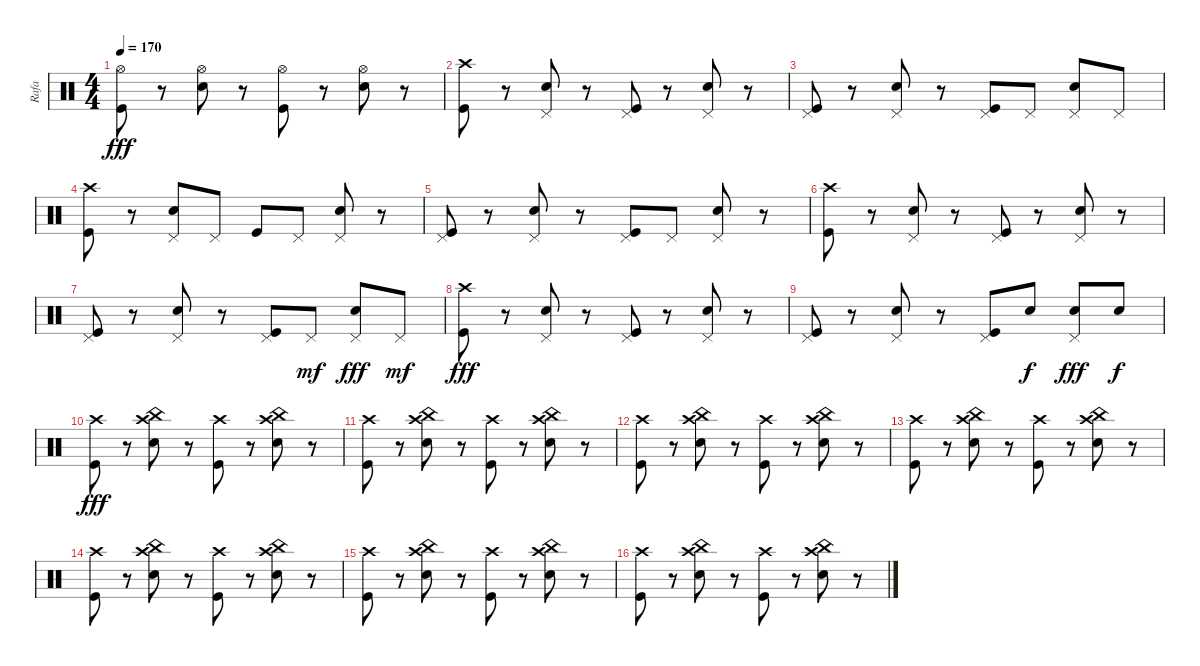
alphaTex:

\track ("Rafa" "Rafa") {instrument percussion}
\staff {score}
\articulation defaults
\ts (4 4)
\tempo 170
\clef neutral
\ks c
("Hi-Hat (open)" "Kick (hit)").8{dy fff} r.8 ("Hi-Hat (open)" "Electric Snare (hit)").8 r.8 ("Hi-Hat (open)" "Kick (hit)").8 r.8 ("Hi-Hat (open)" "Electric Snare (hit)").8 r.8 |
("Crash high (hit)" "Kick (hit)").8 r.8 ("Pedal Hi-Hat (hit)" "Electric Snare (hit)").8 r.8 ("Pedal Hi-Hat (hit)" "Kick (hit)").8 r.8 ("Pedal Hi-Hat (hit)" "Electric Snare (hit)").8 r.8 |
("Pedal Hi-Hat (hit)" "Kick (hit)").8 r.8 ("Pedal Hi-Hat (hit)" "Electric Snare (hit)").8 r.8 ("Pedal Hi-Hat (hit)" "Kick (hit)").8 "Pedal Hi-Hat (hit)".8 ("Pedal Hi-Hat (hit)" "Electric Snare (hit)").8 "Pedal Hi-Hat (hit)".8 |
("Crash high (hit)" "Kick (hit)").8 r.8 ("Pedal Hi-Hat (hit)" "Electric Snare (hit)").8 "Pedal Hi-Hat (hit)".8 "Kick (hit)".8 "Pedal Hi-Hat (hit)".8 ("Pedal Hi-Hat (hit)" "Electric Snare (hit)").8 r.8 |
("Pedal Hi-Hat (hit)" "Kick (hit)").8 r.8 ("Pedal Hi-Hat (hit)" "Electric Snare (hit)").8 r.8 ("Pedal Hi-Hat (hit)" "Kick (hit)").8 "Pedal Hi-Hat (hit)".8 ("Pedal Hi-Hat (hit)" "Electric Snare (hit)").8 r.8 |
("Crash high (hit)" "Kick (hit)").8 r.8 ("Pedal Hi-Hat (hit)" "Electric Snare (hit)").8 r.8 ("Pedal Hi-Hat (hit)" "Kick (hit)").8 r.8 ("Pedal Hi-Hat (hit)" "Electric Snare (hit)").8 r.8 |
("Pedal Hi-Hat (hit)" "Kick (hit)").8 r.8 ("Pedal Hi-Hat (hit)" "Electric Snare (hit)").8 r.8 ("Pedal Hi-Hat (hit)" "Kick (hit)").8 "Pedal Hi-Hat (hit)".8{dy mf} ("Pedal Hi-Hat (hit)" "Electric Snare (hit)").8{dy fff} "Pedal Hi-Hat (hit)".8{dy mf} |
("Crash high (hit)" "Kick (hit)").8{dy fff} r.8 ("Pedal Hi-Hat (hit)" "Electric Snare (hit)").8 r.8 ("Pedal Hi-Hat (hit)" "Kick (hit)").8 r.8 ("Pedal Hi-Hat (hit)" "Electric Snare (hit)").8 r.8 |
("Pedal Hi-Hat (hit)" "Kick (hit)").8 r.8 ("Pedal Hi-Hat (hit)" "Electric Snare (hit)").8 r.8 ("Pedal Hi-Hat (hit)" "Kick (hit)").8 "Electric Snare (hit)".8{dy f} ("Pedal Hi-Hat (hit)" "Electric Snare (hit)").8{dy fff} "Electric Snare (hit)".8{dy f} |
("Crash high (hit)" "Kick (hit)").8{dy fff} r.8 ("China (hit)" "Crash high (hit)" "Electric Snare (hit)").8 r.8 ("Crash high (hit)" "Kick (hit)").8 r.8 ("China (hit)" "Crash high (hit)" "Electric Snare (hit)").8 r.8 |
("Crash high (hit)" "Kick (hit)").8 r.8 ("China (hit)" "Crash high (hit)" "Electric Snare (hit)").8 r.8 ("Crash high (hit)" "Kick (hit)").8 r.8 ("China (hit)" "Crash high (hit)" "Electric Snare (hit)").8 r.8 |
("Crash high (hit)" "Kick (hit)").8 r.8 ("China (hit)" "Crash high (hit)" "Electric Snare (hit)").8 r.8 ("Crash high (hit)" "Kick (hit)").8 r.8 ("China (hit)" "Crash high (hit)" "Electric Snare (hit)").8 r.8 |
("Crash high (hit)" "Kick (hit)").8 r.8 ("China (hit)" "Crash high (hit)" "Electric Snare (hit)").8 r.8 ("Crash high (hit)" "Kick (hit)").8 r.8 ("China (hit)" "Crash high (hit)" "Electric Snare (hit)").8 r.8 |
("Crash high (hit)" "Kick (hit)").8 r.8 ("China (hit)" "Crash high (hit)" "Electric Snare (hit)").8 r.8 ("Crash high (hit)" "Kick (hit)").8 r.8 ("China (hit)" "Crash high (hit)" "Electric Snare (hit)").8 r.8 |
("Crash high (hit)" "Kick (hit)").8 r.8 ("China (hit)" "Crash high (hit)" "Electric Snare (hit)").8 r.8 ("Crash high (hit)" "Kick (hit)").8 r.8 ("China (hit)" "Crash high (hit)" "Electric Snare (hit)").8 r.8 |
("Crash high (hit)" "Kick (hit)").8 r.8 ("China (hit)" "Crash high (hit)" "Electric Snare (hit)").8 r.8 ("Crash high (hit)" "Kick (hit)").8 r.8 ("China (hit)" "Crash high (hit)" "Electric Snare (hit)").8 r.8
